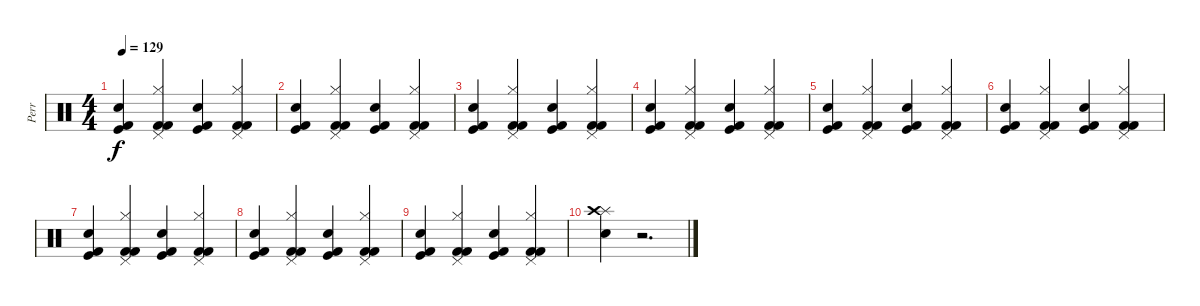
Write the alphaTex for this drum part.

\track ("Perr" "Perr") {instrument percussion}
\staff {score}
\articulation defaults
\ts (4 4)
\tempo 129
\clef neutral
\ks c
("Kick (hit) 2" "Kick (hit)" "Electric Snare (hit)").4{dy f} ("Kick (hit) 2" "Kick (hit) 2" "Hi-Hat (closed)" "Pedal Hi-Hat (hit)").4 ("Kick (hit) 2" "Kick (hit)" "Electric Snare (hit)").4 ("Kick (hit) 2" "Kick (hit) 2" "Hi-Hat (closed)" "Pedal Hi-Hat (hit)").4 |
("Kick (hit) 2" "Kick (hit)" "Electric Snare (hit)").4 ("Kick (hit) 2" "Kick (hit) 2" "Hi-Hat (closed)" "Pedal Hi-Hat (hit)").4 ("Kick (hit) 2" "Kick (hit)" "Electric Snare (hit)").4 ("Kick (hit) 2" "Kick (hit) 2" "Hi-Hat (closed)" "Pedal Hi-Hat (hit)").4 |
("Kick (hit) 2" "Kick (hit)" "Electric Snare (hit)").4 ("Kick (hit) 2" "Kick (hit) 2" "Hi-Hat (closed)" "Pedal Hi-Hat (hit)").4 ("Kick (hit) 2" "Kick (hit)" "Electric Snare (hit)").4 ("Kick (hit) 2" "Kick (hit) 2" "Hi-Hat (closed)" "Pedal Hi-Hat (hit)").4 |
("Kick (hit) 2" "Kick (hit)" "Electric Snare (hit)").4 ("Kick (hit) 2" "Kick (hit) 2" "Hi-Hat (closed)" "Pedal Hi-Hat (hit)").4 ("Kick (hit) 2" "Kick (hit)" "Electric Snare (hit)").4 ("Kick (hit) 2" "Kick (hit) 2" "Hi-Hat (closed)" "Pedal Hi-Hat (hit)").4 |
("Kick (hit) 2" "Kick (hit)" "Electric Snare (hit)").4 ("Kick (hit) 2" "Kick (hit) 2" "Hi-Hat (closed)" "Pedal Hi-Hat (hit)").4 ("Kick (hit) 2" "Kick (hit)" "Electric Snare (hit)").4 ("Kick (hit) 2" "Kick (hit) 2" "Hi-Hat (closed)" "Pedal Hi-Hat (hit)").4 |
("Kick (hit) 2" "Kick (hit)" "Electric Snare (hit)").4 ("Kick (hit) 2" "Kick (hit) 2" "Hi-Hat (closed)" "Pedal Hi-Hat (hit)").4 ("Kick (hit) 2" "Kick (hit)" "Electric Snare (hit)").4 ("Kick (hit) 2" "Kick (hit) 2" "Hi-Hat (closed)" "Pedal Hi-Hat (hit)").4 |
("Kick (hit) 2" "Kick (hit)" "Electric Snare (hit)").4 ("Kick (hit) 2" "Kick (hit) 2" "Hi-Hat (closed)" "Pedal Hi-Hat (hit)").4 ("Kick (hit) 2" "Kick (hit)" "Electric Snare (hit)").4 ("Kick (hit) 2" "Kick (hit) 2" "Hi-Hat (closed)" "Pedal Hi-Hat (hit)").4 |
("Kick (hit) 2" "Kick (hit)" "Electric Snare (hit)").4 ("Kick (hit) 2" "Kick (hit) 2" "Hi-Hat (closed)" "Pedal Hi-Hat (hit)").4 ("Kick (hit) 2" "Kick (hit)" "Electric Snare (hit)").4 ("Kick (hit) 2" "Kick (hit) 2" "Hi-Hat (closed)" "Pedal Hi-Hat (hit)").4 |
("Kick (hit) 2" "Kick (hit)" "Electric Snare (hit)").4 ("Kick (hit) 2" "Kick (hit) 2" "Hi-Hat (closed)" "Pedal Hi-Hat (hit)").4 ("Kick (hit) 2" "Kick (hit)" "Electric Snare (hit)").4 ("Kick (hit) 2" "Kick (hit) 2" "Hi-Hat (closed)" "Pedal Hi-Hat (hit)").4 |
("Splash (hit)" "Electric Snare (hit)" "Crash high (hit)").4 r.2{d}
